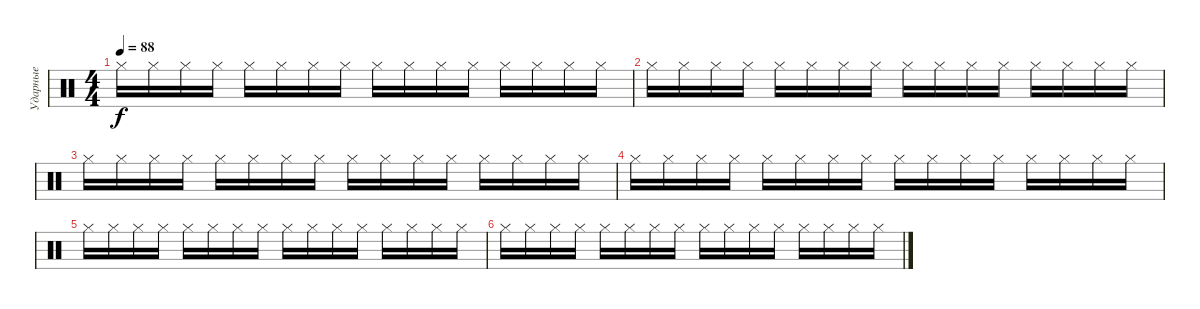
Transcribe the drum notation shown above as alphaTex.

\track ("Ударные" "Ударные") {instrument percussion}
\staff {score}
\articulation defaults
\ts (4 4)
\tempo 88
\clef neutral
\ks c "Hi-Hat (closed)".16{dy f} "Hi-Hat (closed)".16 "Hi-Hat (closed)".16 "Hi-Hat (closed)".16 "Hi-Hat (closed)".16 "Hi-Hat (closed)".16 "Hi-Hat (closed)".16 "Hi-Hat (closed)".16 "Hi-Hat (closed)".16 "Hi-Hat (closed)".16 "Hi-Hat (closed)".16 "Hi-Hat (closed)".16 "Hi-Hat (closed)".16 "Hi-Hat (closed)".16 "Hi-Hat (closed)".16 "Hi-Hat (closed)".16
|
"Hi-Hat (closed)".16 "Hi-Hat (closed)".16 "Hi-Hat (closed)".16 "Hi-Hat (closed)".16 "Hi-Hat (closed)".16 "Hi-Hat (closed)".16 "Hi-Hat (closed)".16 "Hi-Hat (closed)".16 "Hi-Hat (closed)".16 "Hi-Hat (closed)".16 "Hi-Hat (closed)".16 "Hi-Hat (closed)".16 "Hi-Hat (closed)".16 "Hi-Hat (closed)".16 "Hi-Hat (closed)".16 "Hi-Hat (closed)".16 |
"Hi-Hat (closed)".16 "Hi-Hat (closed)".16 "Hi-Hat (closed)".16 "Hi-Hat (closed)".16 "Hi-Hat (closed)".16 "Hi-Hat (closed)".16 "Hi-Hat (closed)".16 "Hi-Hat (closed)".16 "Hi-Hat (closed)".16 "Hi-Hat (closed)".16 "Hi-Hat (closed)".16 "Hi-Hat (closed)".16 "Hi-Hat (closed)".16 "Hi-Hat (closed)".16 "Hi-Hat (closed)".16 "Hi-Hat (closed)".16 |
"Hi-Hat (closed)".16 "Hi-Hat (closed)".16 "Hi-Hat (closed)".16 "Hi-Hat (closed)".16 "Hi-Hat (closed)".16 "Hi-Hat (closed)".16 "Hi-Hat (closed)".16 "Hi-Hat (closed)".16 "Hi-Hat (closed)".16 "Hi-Hat (closed)".16 "Hi-Hat (closed)".16 "Hi-Hat (closed)".16 "Hi-Hat (closed)".16 "Hi-Hat (closed)".16 "Hi-Hat (closed)".16 "Hi-Hat (closed)".16 |
"Hi-Hat (closed)".16 "Hi-Hat (closed)".16 "Hi-Hat (closed)".16 "Hi-Hat (closed)".16 "Hi-Hat (closed)".16 "Hi-Hat (closed)".16 "Hi-Hat (closed)".16 "Hi-Hat (closed)".16 "Hi-Hat (closed)".16 "Hi-Hat (closed)".16 "Hi-Hat (closed)".16 "Hi-Hat (closed)".16 "Hi-Hat (closed)".16 "Hi-Hat (closed)".16 "Hi-Hat (closed)".16 "Hi-Hat (closed)".16 |
"Hi-Hat (closed)".16 "Hi-Hat (closed)".16 "Hi-Hat (closed)".16 "Hi-Hat (closed)".16 "Hi-Hat (closed)".16 "Hi-Hat (closed)".16 "Hi-Hat (closed)".16 "Hi-Hat (closed)".16 "Hi-Hat (closed)".16 "Hi-Hat (closed)".16 "Hi-Hat (closed)".16 "Hi-Hat (closed)".16 "Hi-Hat (closed)".16 "Hi-Hat (closed)".16 "Hi-Hat (closed)".16 "Hi-Hat (closed)".16
